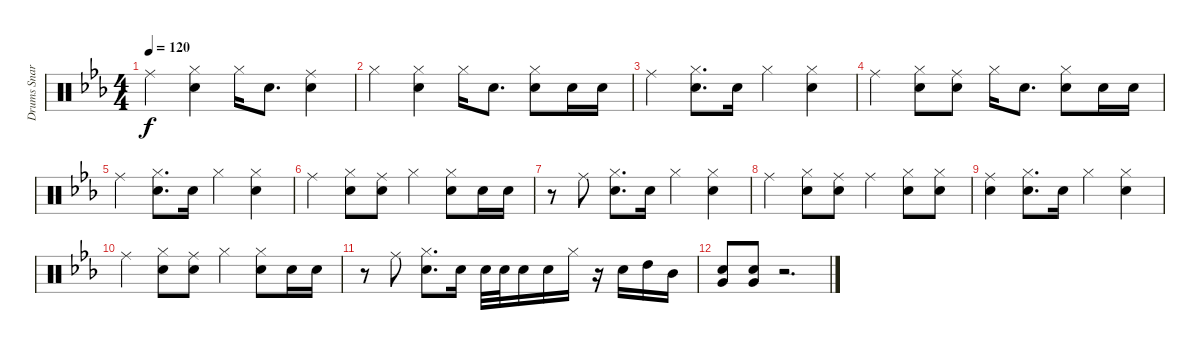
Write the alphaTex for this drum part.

\track ("Drums Snare" "Drums Snar") {instrument percussion}
\staff {score}
\articulation defaults
\ts (4 4)
\tempo 120
\clef neutral
\ks eb "Ride (middle)".4{dy f}
("Hi-Hat (closed)" "Snare (hit) 2").4 "Hi-Hat (closed)".16 "Snare (hit) 2".8{d} ("Ride (middle)" "Snare (hit) 2").4 |
"Hi-Hat (closed)".4 ("Hi-Hat (closed)" "Snare (hit) 2").4 "Hi-Hat (closed)".16 "Snare (hit) 2".8{d} ("Hi-Hat (closed)" "Snare (hit) 2").8 "Snare (hit) 2".16 "Snare (hit) 2".16 |
"Ride (middle)".4 ("Hi-Hat (closed)" "Snare (hit) 2").8{d} "Snare (hit) 2".16 "Hi-Hat (closed)".4 ("Hi-Hat (closed)" "Snare (hit) 2").4 |
"Ride (middle)".4 ("Hi-Hat (closed)" "Snare (hit) 2").8 ("Ride (middle)" "Snare (hit) 2").8 "Hi-Hat (closed)".16 "Snare (hit) 2".8{d} ("Hi-Hat (closed)" "Snare (hit) 2").8 "Snare (hit) 2".16 "Snare (hit) 2".16 |
"Ride (middle)".4 ("Hi-Hat (closed)" "Snare (hit) 2").8{d} "Snare (hit) 2".16 "Hi-Hat (closed)".4 ("Hi-Hat (closed)" "Snare (hit) 2").4 |
"Ride (middle)".4 ("Hi-Hat (closed)" "Snare (hit) 2").8 ("Ride (middle)" "Snare (hit) 2").8 "Hi-Hat (closed)".4 ("Hi-Hat (closed)" "Snare (hit) 2").8 "Snare (hit) 2".16 "Snare (hit) 2".16 |
r.8 "Ride (middle)".8 ("Hi-Hat (closed)" "Snare (hit) 2").8{d} "Snare (hit) 2".16 "Hi-Hat (closed)".4 ("Hi-Hat (closed)" "Snare (hit) 2").4 |
"Ride (middle)".4 ("Hi-Hat (closed)" "Snare (hit) 2").8 ("Ride (middle)" "Snare (hit) 2").8 "Ride (middle)".4 ("Hi-Hat (closed)" "Snare (hit) 2").8 ("Hi-Hat (closed)" "Snare (hit) 2").8 |
("Ride (middle)" "Snare (hit) 2").4 ("Hi-Hat (closed)" "Snare (hit) 2").8{d} "Snare (hit) 2".16 "Hi-Hat (closed)".4 ("Hi-Hat (closed)" "Snare (hit) 2").4 |
"Ride (middle)".4 ("Hi-Hat (closed)" "Snare (hit) 2").8 ("Ride (middle)" "Snare (hit) 2").8 "Hi-Hat (closed)".4 ("Hi-Hat (closed)" "Snare (hit) 2").8 "Snare (hit) 2".16 "Snare (hit) 2".16 |
r.8 "Ride (middle)".8 ("Hi-Hat (closed)" "Snare (hit) 2").8{d} "Snare (hit) 2".16 "Snare (hit) 2".32 "Snare (hit) 2".32 "Snare (hit) 2".16 "Snare (hit) 2".16 "Hi-Hat (closed)".16 r.16 "Snare (hit) 2".16 "High Tom (hit)".16 "Mid Tom (hit)".16 |
("Very Low Tom (hit)" "Snare (hit) 2").8 ("Snare (hit) 2" "Very Low Tom (hit)").8 r.2{d}
